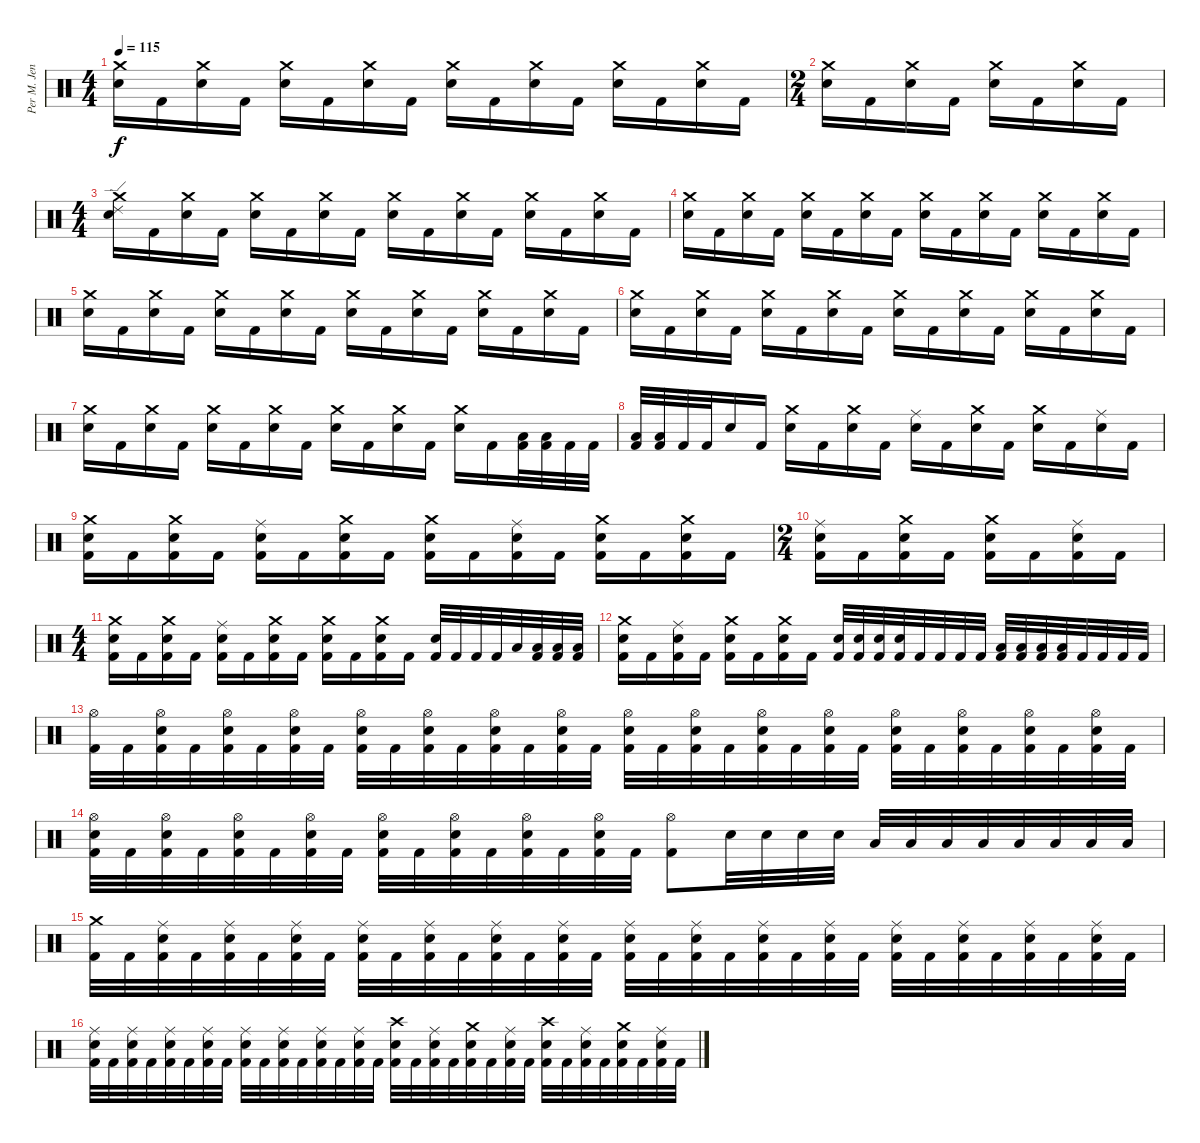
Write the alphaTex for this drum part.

\track ("Per M. Jensen (Ex-Drums)" "Per M. Jen") {instrument percussion}
\staff {score}
\articulation defaults
\ts (4 4)
\tempo 115
\clef neutral
\ks c
("Crash medium (hit)" "Snare (hit) 2").16{dy f} "Kick (hit) 2".16 ("Crash medium (hit)" "Snare (hit) 2").16 "Kick (hit) 2".16 ("Crash medium (hit)" "Snare (hit) 2").16 "Kick (hit) 2".16 ("Crash medium (hit)" "Snare (hit) 2").16 "Kick (hit) 2".16 ("Crash medium (hit)" "Snare (hit) 2").16 "Kick (hit) 2".16 ("Crash medium (hit)" "Snare (hit) 2").16 "Kick (hit) 2".16 ("Crash medium (hit)" "Snare (hit) 2").16 "Kick (hit) 2".16 ("Crash medium (hit)" "Snare (hit) 2").16 "Kick (hit) 2".16 |
\ts (2 4)
("Crash medium (hit)" "Snare (hit) 2").16 "Kick (hit) 2".16 ("Crash medium (hit)" "Snare (hit) 2").16 "Kick (hit) 2".16 ("Crash medium (hit)" "Snare (hit) 2").16 "Kick (hit) 2".16 ("Crash medium (hit)" "Snare (hit) 2").16 "Kick (hit) 2".16 |
\ts (4 4)
("Crash medium (hit)" "Ride (edge) 2" "Snare (hit) 2").16 "Kick (hit) 2".16 ("Crash medium (hit)" "Snare (hit) 2").16 "Kick (hit) 2".16 ("Crash medium (hit)" "Snare (hit) 2").16 "Kick (hit) 2".16 ("Crash medium (hit)" "Snare (hit) 2").16 "Kick (hit) 2".16 ("Crash medium (hit)" "Snare (hit) 2").16 "Kick (hit) 2".16 ("Crash medium (hit)" "Snare (hit) 2").16 "Kick (hit) 2".16 ("Crash medium (hit)" "Snare (hit) 2").16 "Kick (hit) 2".16 ("Crash medium (hit)" "Snare (hit) 2").16 "Kick (hit) 2".16 |
("Crash medium (hit)" "Snare (hit) 2").16 "Kick (hit) 2".16 ("Crash medium (hit)" "Snare (hit) 2").16 "Kick (hit) 2".16 ("Crash medium (hit)" "Snare (hit) 2").16 "Kick (hit) 2".16 ("Crash medium (hit)" "Snare (hit) 2").16 "Kick (hit) 2".16 ("Crash medium (hit)" "Snare (hit) 2").16 "Kick (hit) 2".16 ("Crash medium (hit)" "Snare (hit) 2").16 "Kick (hit) 2".16 ("Crash medium (hit)" "Snare (hit) 2").16 "Kick (hit) 2".16 ("Crash medium (hit)" "Snare (hit) 2").16 "Kick (hit) 2".16 |
("Crash medium (hit)" "Snare (hit) 2").16 "Kick (hit) 2".16 ("Crash medium (hit)" "Snare (hit) 2").16 "Kick (hit) 2".16 ("Crash medium (hit)" "Snare (hit) 2").16 "Kick (hit) 2".16 ("Crash medium (hit)" "Snare (hit) 2").16 "Kick (hit) 2".16 ("Crash medium (hit)" "Snare (hit) 2").16 "Kick (hit) 2".16 ("Crash medium (hit)" "Snare (hit) 2").16 "Kick (hit) 2".16 ("Crash medium (hit)" "Snare (hit) 2").16 "Kick (hit) 2".16 ("Crash medium (hit)" "Snare (hit) 2").16 "Kick (hit) 2".16 |
("Crash medium (hit)" "Snare (hit) 2").16 "Kick (hit) 2".16 ("Crash medium (hit)" "Snare (hit) 2").16 "Kick (hit) 2".16 ("Crash medium (hit)" "Snare (hit) 2").16 "Kick (hit) 2".16 ("Crash medium (hit)" "Snare (hit) 2").16 "Kick (hit) 2".16 ("Crash medium (hit)" "Snare (hit) 2").16 "Kick (hit) 2".16 ("Crash medium (hit)" "Snare (hit) 2").16 "Kick (hit) 2".16 ("Crash medium (hit)" "Snare (hit) 2").16 "Kick (hit) 2".16 ("Crash medium (hit)" "Snare (hit) 2").16 "Kick (hit) 2".16 |
("Crash medium (hit)" "Snare (hit) 2").16 "Kick (hit) 2".16 ("Crash medium (hit)" "Snare (hit) 2").16 "Kick (hit) 2".16 ("Crash medium (hit)" "Snare (hit) 2").16 "Kick (hit) 2".16 ("Crash medium (hit)" "Snare (hit) 2").16 "Kick (hit) 2".16 ("Crash medium (hit)" "Snare (hit) 2").16 "Kick (hit) 2".16 ("Crash medium (hit)" "Snare (hit) 2").16 "Kick (hit) 2".16 ("Crash medium (hit)" "Snare (hit) 2").16 "Kick (hit) 2".16 ("Low Tom (hit)" "Kick (hit) 2").32 ("Low Tom (hit)" "Kick (hit) 2").32 "Kick (hit) 2".32 "Kick (hit) 2".32 |
("Low Floor Tom (hit)" "Kick (hit) 2").32 ("Low Floor Tom (hit)" "Kick (hit) 2").32 "Kick (hit) 2".32 "Kick (hit) 2".32 "Snare (hit) 2".16 "Kick (hit) 2".16 ("Crash medium (hit)" "Snare (hit) 2").16 "Kick (hit) 2".16 ("Crash medium (hit)" "Snare (hit) 2").16 "Kick (hit) 2".16 ("Ride (middle)" "Snare (hit) 2").16 "Kick (hit) 2".16 ("Crash medium (hit)" "Snare (hit) 2").16 "Kick (hit) 2".16 ("Crash medium (hit)" "Snare (hit) 2").16 "Kick (hit) 2".16 ("Ride (middle)" "Snare (hit) 2").16 "Kick (hit) 2".16 |
("Crash medium (hit)" "Snare (hit) 2" "Kick (hit) 2").16 "Kick (hit) 2".16 ("Crash medium (hit)" "Snare (hit) 2" "Kick (hit) 2").16 "Kick (hit) 2".16 ("Ride (middle)" "Snare (hit) 2" "Kick (hit) 2").16 "Kick (hit) 2".16 ("Crash medium (hit)" "Snare (hit) 2" "Kick (hit) 2").16 "Kick (hit) 2".16 ("Crash medium (hit)" "Snare (hit) 2" "Kick (hit) 2").16 "Kick (hit) 2".16 ("Ride (middle)" "Snare (hit) 2" "Kick (hit) 2").16 "Kick (hit) 2".16 ("Crash medium (hit)" "Snare (hit) 2" "Kick (hit) 2").16 "Kick (hit) 2".16 ("Crash medium (hit)" "Snare (hit) 2" "Kick (hit) 2").16 "Kick (hit) 2".16 |
\ts (2 4)
("Ride (middle)" "Snare (hit) 2" "Kick (hit) 2").16 "Kick (hit) 2".16 ("Crash medium (hit)" "Snare (hit) 2" "Kick (hit) 2").16 "Kick (hit) 2".16 ("Crash medium (hit)" "Snare (hit) 2" "Kick (hit) 2").16 "Kick (hit) 2".16 ("Ride (middle)" "Snare (hit) 2" "Kick (hit) 2").16 "Kick (hit) 2".16 |
\ts (4 4)
("Crash medium (hit)" "Snare (hit) 2" "Kick (hit) 2").16 "Kick (hit) 2".16 ("Crash medium (hit)" "Snare (hit) 2" "Kick (hit) 2").16 "Kick (hit) 2".16 ("Ride (middle)" "Snare (hit) 2" "Kick (hit) 2").16 "Kick (hit) 2".16 ("Crash medium (hit)" "Snare (hit) 2" "Kick (hit) 2").16 "Kick (hit) 2".16 ("Crash medium (hit)" "Snare (hit) 2" "Kick (hit) 2").16 "Kick (hit) 2".16 ("Crash medium (hit)" "Snare (hit) 2" "Kick (hit) 2").16 "Kick (hit) 2".16 ("Snare (hit) 2" "Kick (hit) 2").32 "Kick (hit) 2".32 "Kick (hit) 2".32 "Kick (hit) 2".32 "Low Tom (hit)".32 ("Low Tom (hit)" "Kick (hit) 2").32 ("Low Floor Tom (hit)" "Kick (hit) 2").32 ("Low Floor Tom (hit)" "Kick (hit) 2").32 |
("Crash medium (hit)" "Snare (hit) 2" "Kick (hit) 2").16 "Kick (hit) 2".16 ("Ride (middle)" "Snare (hit) 2" "Kick (hit) 2").16 "Kick (hit) 2".16 ("Crash medium (hit)" "Snare (hit) 2" "Kick (hit) 2").16 "Kick (hit) 2".16 ("Crash medium (hit)" "Snare (hit) 2" "Kick (hit) 2").16 "Kick (hit) 2".16 ("Snare (hit) 2" "Kick (hit) 2").32 ("Snare (hit) 2" "Kick (hit) 2").32 ("Snare (hit) 2" "Kick (hit) 2").32 ("Snare (hit) 2" "Kick (hit) 2").32 "Kick (hit) 2".32 "Kick (hit) 2".32 "Kick (hit) 2".32 "Kick (hit) 2".32 ("Low Tom (hit)" "Kick (hit) 2").32 ("Low Tom (hit)" "Kick (hit) 2").32 ("Low Floor Tom (hit)" "Kick (hit) 2").32 ("Low Floor Tom (hit)" "Kick (hit) 2").32 "Kick (hit) 2".32 "Kick (hit) 2".32 "Kick (hit) 2".32 "Kick (hit) 2".32 |
("Hi-Hat (open)" "Kick (hit) 2").32 "Kick (hit) 2".32 ("Hi-Hat (open)" "Snare (hit) 2" "Kick (hit) 2").32 "Kick (hit) 2".32 ("Hi-Hat (open)" "Snare (hit) 2" "Kick (hit) 2").32 "Kick (hit) 2".32 ("Hi-Hat (open)" "Snare (hit) 2" "Kick (hit) 2").32 "Kick (hit) 2".32 ("Hi-Hat (open)" "Snare (hit) 2" "Kick (hit) 2").32 "Kick (hit) 2".32 ("Hi-Hat (open)" "Snare (hit) 2" "Kick (hit) 2").32 "Kick (hit) 2".32 ("Hi-Hat (open)" "Snare (hit) 2" "Kick (hit) 2").32 "Kick (hit) 2".32 ("Hi-Hat (open)" "Snare (hit) 2" "Kick (hit) 2").32 "Kick (hit) 2".32 ("Hi-Hat (open)" "Snare (hit) 2" "Kick (hit) 2").32 "Kick (hit) 2".32 ("Hi-Hat (open)" "Snare (hit) 2" "Kick (hit) 2").32 "Kick (hit) 2".32 ("Hi-Hat (open)" "Snare (hit) 2" "Kick (hit) 2").32 "Kick (hit) 2".32 ("Hi-Hat (open)" "Snare (hit) 2" "Kick (hit) 2").32 "Kick (hit) 2".32 ("Hi-Hat (open)" "Snare (hit) 2" "Kick (hit) 2").32 "Kick (hit) 2".32 ("Hi-Hat (open)" "Snare (hit) 2" "Kick (hit) 2").32 "Kick (hit) 2".32 ("Hi-Hat (open)" "Snare (hit) 2" "Kick (hit) 2").32 "Kick (hit) 2".32 ("Hi-Hat (open)" "Snare (hit) 2" "Kick (hit) 2").32 "Kick (hit) 2".32 |
("Hi-Hat (open)" "Snare (hit) 2" "Kick (hit) 2").32 "Kick (hit) 2".32 ("Hi-Hat (open)" "Snare (hit) 2" "Kick (hit) 2").32 "Kick (hit) 2".32 ("Hi-Hat (open)" "Snare (hit) 2" "Kick (hit) 2").32 "Kick (hit) 2".32 ("Hi-Hat (open)" "Snare (hit) 2" "Kick (hit) 2").32 "Kick (hit) 2".32 ("Hi-Hat (open)" "Snare (hit) 2" "Kick (hit) 2").32 "Kick (hit) 2".32 ("Hi-Hat (open)" "Snare (hit) 2" "Kick (hit) 2").32 "Kick (hit) 2".32 ("Hi-Hat (open)" "Snare (hit) 2" "Kick (hit) 2").32 "Kick (hit) 2".32 ("Hi-Hat (open)" "Snare (hit) 2" "Kick (hit) 2").32 "Kick (hit) 2".32 ("Hi-Hat (open)" "Kick (hit) 2").8 "Snare (hit) 2".32 "Snare (hit) 2".32 "Snare (hit) 2".32 "Snare (hit) 2".32 "Low Tom (hit)".32 "Low Tom (hit)".32 "Low Tom (hit)".32 "Low Tom (hit)".32 "Low Floor Tom (hit)".32 "Low Floor Tom (hit)".32 "Low Floor Tom (hit)".32 "Low Floor Tom (hit)".32 |
("Crash medium (hit)" "Kick (hit) 2").32 "Kick (hit) 2".32 ("Ride (middle)" "Snare (hit) 2" "Kick (hit) 2").32 "Kick (hit) 2".32 ("Ride (middle)" "Snare (hit) 2" "Kick (hit) 2").32 "Kick (hit) 2".32 ("Ride (middle)" "Snare (hit) 2" "Kick (hit) 2").32 "Kick (hit) 2".32 ("Ride (middle)" "Snare (hit) 2" "Kick (hit) 2").32 "Kick (hit) 2".32 ("Ride (middle)" "Snare (hit) 2" "Kick (hit) 2").32 "Kick (hit) 2".32 ("Ride (middle)" "Snare (hit) 2" "Kick (hit) 2").32 "Kick (hit) 2".32 ("Ride (middle)" "Snare (hit) 2" "Kick (hit) 2").32 "Kick (hit) 2".32 ("Ride (middle)" "Snare (hit) 2" "Kick (hit) 2").32 "Kick (hit) 2".32 ("Ride (middle)" "Snare (hit) 2" "Kick (hit) 2").32 "Kick (hit) 2".32 ("Ride (middle)" "Snare (hit) 2" "Kick (hit) 2").32 "Kick (hit) 2".32 ("Ride (middle)" "Snare (hit) 2" "Kick (hit) 2").32 "Kick (hit) 2".32 ("Ride (middle)" "Snare (hit) 2" "Kick (hit) 2").32 "Kick (hit) 2".32 ("Ride (middle)" "Snare (hit) 2" "Kick (hit) 2").32 "Kick (hit) 2".32 ("Ride (middle)" "Snare (hit) 2" "Kick (hit) 2").32 "Kick (hit) 2".32 ("Ride (middle)" "Snare (hit) 2" "Kick (hit) 2").32 "Kick (hit) 2".32 |
("Ride (middle)" "Snare (hit) 2" "Kick (hit) 2").32 "Kick (hit) 2".32 ("Ride (middle)" "Snare (hit) 2" "Kick (hit) 2").32 "Kick (hit) 2".32 ("Ride (middle)" "Snare (hit) 2" "Kick (hit) 2").32 "Kick (hit) 2".32 ("Ride (middle)" "Snare (hit) 2" "Kick (hit) 2").32 "Kick (hit) 2".32 ("Ride (middle)" "Snare (hit) 2" "Kick (hit) 2").32 "Kick (hit) 2".32 ("Ride (middle)" "Snare (hit) 2" "Kick (hit) 2").32 "Kick (hit) 2".32 ("Ride (middle)" "Snare (hit) 2" "Kick (hit) 2").32 "Kick (hit) 2".32 ("Ride (middle)" "Snare (hit) 2" "Kick (hit) 2").32 "Kick (hit) 2".32 ("Crash high (hit)" "Snare (hit) 2" "Kick (hit) 2").32 "Kick (hit) 2".32 ("Ride (middle)" "Snare (hit) 2" "Kick (hit) 2").32 "Kick (hit) 2".32 ("Crash medium (hit)" "Snare (hit) 2" "Kick (hit) 2").32 "Kick (hit) 2".32 ("Ride (middle)" "Snare (hit) 2" "Kick (hit) 2").32 "Kick (hit) 2".32 ("Crash high (hit)" "Snare (hit) 2" "Kick (hit) 2").32 "Kick (hit) 2".32 ("Ride (middle)" "Snare (hit) 2" "Kick (hit) 2").32 "Kick (hit) 2".32 ("Crash medium (hit)" "Snare (hit) 2" "Kick (hit) 2").32 "Kick (hit) 2".32 ("Ride (middle)" "Snare (hit) 2" "Kick (hit) 2").32 "Kick (hit) 2".32
